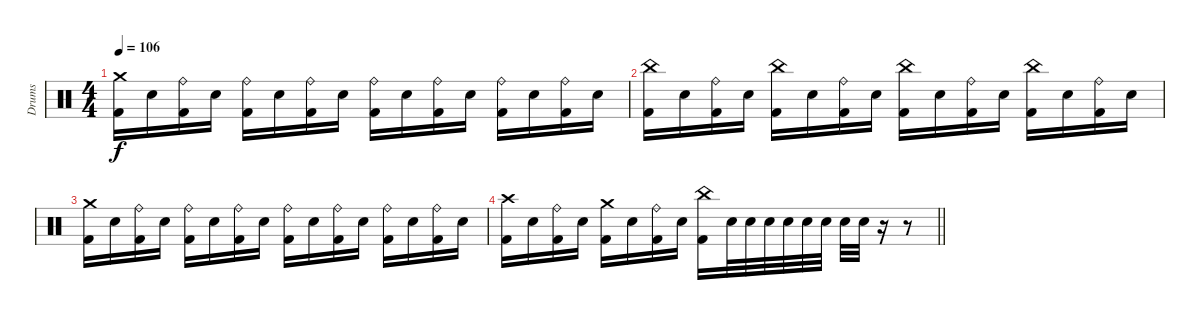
\track ("Drums" "Drums") {instrument percussion}
\staff {score}
\articulation defaults
\ts (4 4)
\tempo 106
\clef neutral
\ks c
("Crash medium (hit)" "Kick (hit) 2").16{dy f} "Electric Snare (hit)".16 ("Ride (bell)" "Kick (hit) 2").16 "Electric Snare (hit)".16 ("Ride (bell)" "Kick (hit) 2").16 "Electric Snare (hit)".16 ("Ride (bell)" "Kick (hit) 2").16 "Electric Snare (hit)".16 ("Ride (bell)" "Kick (hit) 2").16 "Electric Snare (hit)".16 ("Ride (bell)" "Kick (hit) 2").16 "Electric Snare (hit)".16 ("Ride (bell)" "Kick (hit) 2").16 "Electric Snare (hit)".16 ("Ride (bell)" "Kick (hit) 2").16 "Electric Snare (hit)".16 |
("China (hit)" "Kick (hit) 2").16 "Electric Snare (hit)".16 ("Ride (bell)" "Kick (hit) 2").16 "Electric Snare (hit)".16 ("China (hit)" "Kick (hit) 2").16 "Electric Snare (hit)".16 ("Ride (bell)" "Kick (hit) 2").16 "Electric Snare (hit)".16 ("China (hit)" "Kick (hit) 2").16 "Electric Snare (hit)".16 ("Ride (bell)" "Kick (hit) 2").16 "Electric Snare (hit)".16 ("China (hit)" "Kick (hit) 2").16 "Electric Snare (hit)".16 ("Ride (bell)" "Kick (hit) 2").16 "Electric Snare (hit)".16 |
("Crash medium (hit)" "Kick (hit) 2").16 "Electric Snare (hit)".16 ("Ride (bell)" "Kick (hit) 2").16 "Electric Snare (hit)".16 ("Ride (bell)" "Kick (hit) 2").16 "Electric Snare (hit)".16 ("Ride (bell)" "Kick (hit) 2").16 "Electric Snare (hit)".16 ("Ride (bell)" "Kick (hit) 2").16 "Electric Snare (hit)".16 ("Ride (bell)" "Kick (hit) 2").16 "Electric Snare (hit)".16 ("Ride (bell)" "Kick (hit) 2").16 "Electric Snare (hit)".16 ("Ride (bell)" "Kick (hit) 2").16 "Electric Snare (hit)".16 |
\barLineRight lightlight
("Crash high (hit)" "Kick (hit) 2").16 "Electric Snare (hit)".16 ("Ride (bell)" "Kick (hit) 2").16 "Electric Snare (hit)".16 ("Crash medium (hit)" "Kick (hit) 2").16 "Electric Snare (hit)".16 ("Ride (bell)" "Kick (hit) 2").16 "Electric Snare (hit)".16 ("China (hit)" "Kick (hit) 2").16 "Electric Snare (hit)".32 "Electric Snare (hit)".32 "Electric Snare (hit)".32 "Electric Snare (hit)".32 "Electric Snare (hit)".32 "Electric Snare (hit)".32 "Electric Snare (hit)".32 "Electric Snare (hit)".32 r.16 r.8
